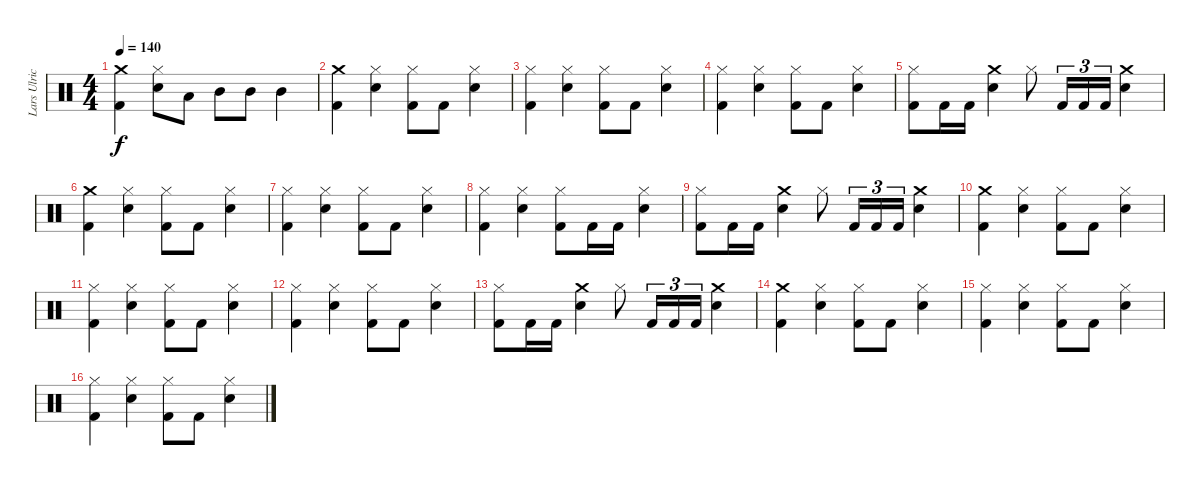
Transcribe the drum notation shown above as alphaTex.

\track ("Lars Ulrich (Drums)" "Lars Ulric") {instrument percussion}
\staff {score}
\articulation defaults
\ts (4 4)
\tempo 140
\clef neutral
\ks c
("Kick (hit) 2" "Crash medium (hit)").4{dy f} ("Snare (hit) 2" "Hi-Hat (closed)").8 "Low Tom (hit)".8 "Mid Tom (hit)".8 "Mid Tom (hit)".8 "Mid Tom (hit)".4 |
("Kick (hit) 2" "Crash medium (hit)").4 ("Snare (hit) 2" "Hi-Hat (closed)").4 ("Kick (hit) 2" "Hi-Hat (closed)").8 "Kick (hit) 2".8 ("Snare (hit) 2" "Hi-Hat (closed)").4 |
("Hi-Hat (closed)" "Kick (hit) 2").4 ("Snare (hit) 2" "Hi-Hat (closed)").4 ("Hi-Hat (closed)" "Kick (hit) 2").8 "Kick (hit) 2".8 ("Snare (hit) 2" "Hi-Hat (closed)").4 |
("Kick (hit) 2" "Hi-Hat (closed)").4 ("Snare (hit) 2" "Hi-Hat (closed)").4 ("Hi-Hat (closed)" "Kick (hit) 2").8 "Kick (hit) 2".8 ("Snare (hit) 2" "Hi-Hat (closed)").4 |
("Hi-Hat (closed)" "Kick (hit) 2").8 "Kick (hit) 2".16 "Kick (hit) 2".16 ("Snare (hit) 2" "Crash medium (hit)").4 "Hi-Hat (closed)".8 "Kick (hit) 2".16{tu (3 2)} "Kick (hit) 2".16{tu (3 2)} "Kick (hit) 2".16{tu (3 2)} ("Snare (hit) 2" "Crash medium (hit)").4 |
("Crash medium (hit)" "Kick (hit) 2").4 ("Snare (hit) 2" "Hi-Hat (closed)").4 ("Kick (hit) 2" "Hi-Hat (closed)").8 "Kick (hit) 2".8 ("Snare (hit) 2" "Hi-Hat (closed)").4 |
("Kick (hit) 2" "Hi-Hat (closed)").4 ("Snare (hit) 2" "Hi-Hat (closed)").4 ("Hi-Hat (closed)" "Kick (hit) 2").8 "Kick (hit) 2".8 ("Snare (hit) 2" "Hi-Hat (closed)").4 |
("Kick (hit) 2" "Hi-Hat (closed)").4 ("Snare (hit) 2" "Hi-Hat (closed)").4 ("Hi-Hat (closed)" "Kick (hit) 2").8 "Kick (hit) 2".16 "Kick (hit) 2".16 ("Snare (hit) 2" "Hi-Hat (closed)").4 |
("Hi-Hat (closed)" "Kick (hit) 2").8 "Kick (hit) 2".16 "Kick (hit) 2".16 ("Snare (hit) 2" "Crash medium (hit)").4 "Hi-Hat (closed)".8 "Kick (hit) 2".16{tu (3 2)} "Kick (hit) 2".16{tu (3 2)} "Kick (hit) 2".16{tu (3 2)} ("Snare (hit) 2" "Crash medium (hit)").4 |
("Crash medium (hit)" "Kick (hit) 2").4 ("Snare (hit) 2" "Hi-Hat (closed)").4 ("Kick (hit) 2" "Hi-Hat (closed)").8 "Kick (hit) 2".8 ("Snare (hit) 2" "Hi-Hat (closed)").4 |
("Kick (hit) 2" "Hi-Hat (closed)").4 ("Snare (hit) 2" "Hi-Hat (closed)").4 ("Hi-Hat (closed)" "Kick (hit) 2").8 "Kick (hit) 2".8 ("Snare (hit) 2" "Hi-Hat (closed)").4 |
("Kick (hit) 2" "Hi-Hat (closed)").4 ("Snare (hit) 2" "Hi-Hat (closed)").4 ("Hi-Hat (closed)" "Kick (hit) 2").8 "Kick (hit) 2".8 ("Snare (hit) 2" "Hi-Hat (closed)").4 |
("Hi-Hat (closed)" "Kick (hit) 2").8 "Kick (hit) 2".16 "Kick (hit) 2".16 ("Snare (hit) 2" "Crash medium (hit)").4 "Hi-Hat (closed)".8 "Kick (hit) 2".16{tu (3 2)} "Kick (hit) 2".16{tu (3 2)} "Kick (hit) 2".16{tu (3 2)} ("Snare (hit) 2" "Crash medium (hit)").4 |
("Crash medium (hit)" "Kick (hit) 2").4 ("Snare (hit) 2" "Hi-Hat (closed)").4 ("Kick (hit) 2" "Hi-Hat (closed)").8 "Kick (hit) 2".8 ("Snare (hit) 2" "Hi-Hat (closed)").4 |
("Kick (hit) 2" "Hi-Hat (closed)").4 ("Snare (hit) 2" "Hi-Hat (closed)").4 ("Hi-Hat (closed)" "Kick (hit) 2").8 "Kick (hit) 2".8 ("Snare (hit) 2" "Hi-Hat (closed)").4 |
("Kick (hit) 2" "Hi-Hat (closed)").4 ("Snare (hit) 2" "Hi-Hat (closed)").4 ("Kick (hit) 2" "Hi-Hat (closed)").8 "Kick (hit) 2".8 ("Snare (hit) 2" "Hi-Hat (closed)").4
